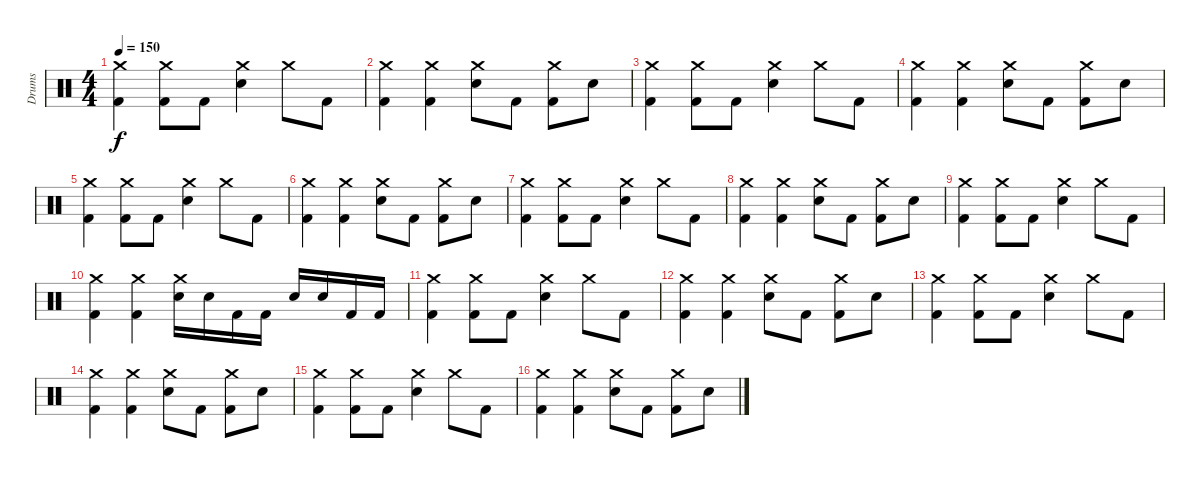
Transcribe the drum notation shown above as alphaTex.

\track ("Drums" "Drums") {instrument percussion}
\staff {score}
\articulation defaults
\ts (4 4)
\tempo 150
\clef neutral
\ks c
("Crash medium (hit)" "Kick (hit) 2").4{dy f} ("Crash medium (hit)" "Kick (hit) 2").8 "Kick (hit) 2".8 ("Crash medium (hit)" "Snare (hit) 2").4 "Crash medium (hit)".8 "Kick (hit) 2".8 |
("Crash medium (hit)" "Kick (hit) 2").4 ("Crash medium (hit)" "Kick (hit) 2").4 ("Crash medium (hit)" "Snare (hit) 2").8 "Kick (hit) 2".8 ("Crash medium (hit)" "Kick (hit) 2").8 "Snare (hit) 2".8 |
("Crash medium (hit)" "Kick (hit) 2").4 ("Crash medium (hit)" "Kick (hit) 2").8 "Kick (hit) 2".8 ("Crash medium (hit)" "Snare (hit) 2").4 "Crash medium (hit)".8 "Kick (hit) 2".8 |
("Crash medium (hit)" "Kick (hit) 2").4 ("Crash medium (hit)" "Kick (hit) 2").4 ("Crash medium (hit)" "Snare (hit) 2").8 "Kick (hit) 2".8 ("Crash medium (hit)" "Kick (hit) 2").8 "Snare (hit) 2".8 |
("Crash medium (hit)" "Kick (hit) 2").4 ("Crash medium (hit)" "Kick (hit) 2").8 "Kick (hit) 2".8 ("Crash medium (hit)" "Snare (hit) 2").4 "Crash medium (hit)".8 "Kick (hit) 2".8 |
("Crash medium (hit)" "Kick (hit) 2").4 ("Crash medium (hit)" "Kick (hit) 2").4 ("Crash medium (hit)" "Snare (hit) 2").8 "Kick (hit) 2".8 ("Crash medium (hit)" "Kick (hit) 2").8 "Snare (hit) 2".8 |
("Crash medium (hit)" "Kick (hit) 2").4 ("Crash medium (hit)" "Kick (hit) 2").8 "Kick (hit) 2".8 ("Crash medium (hit)" "Snare (hit) 2").4 "Crash medium (hit)".8 "Kick (hit) 2".8 |
("Crash medium (hit)" "Kick (hit) 2").4 ("Crash medium (hit)" "Kick (hit) 2").4 ("Crash medium (hit)" "Snare (hit) 2").8 "Kick (hit) 2".8 ("Crash medium (hit)" "Kick (hit) 2").8 "Snare (hit) 2".8 |
("Crash medium (hit)" "Kick (hit) 2").4 ("Crash medium (hit)" "Kick (hit) 2").8 "Kick (hit) 2".8 ("Crash medium (hit)" "Snare (hit) 2").4 "Crash medium (hit)".8 "Kick (hit) 2".8 |
("Crash medium (hit)" "Kick (hit) 2").4 ("Crash medium (hit)" "Kick (hit) 2").4 ("Crash medium (hit)" "Snare (hit) 2").16 "Snare (hit) 2".16 "Kick (hit) 2".16 "Kick (hit) 2".16 "Snare (hit) 2".16 "Snare (hit) 2".16 "Kick (hit) 2".16 "Kick (hit) 2".16 |
("Crash medium (hit)" "Kick (hit) 2").4 ("Crash medium (hit)" "Kick (hit) 2").8 "Kick (hit) 2".8 ("Crash medium (hit)" "Snare (hit) 2").4 "Crash medium (hit)".8 "Kick (hit) 2".8 |
("Crash medium (hit)" "Kick (hit) 2").4 ("Crash medium (hit)" "Kick (hit) 2").4 ("Crash medium (hit)" "Snare (hit) 2").8 "Kick (hit) 2".8 ("Crash medium (hit)" "Kick (hit) 2").8 "Snare (hit) 2".8 |
("Crash medium (hit)" "Kick (hit) 2").4 ("Crash medium (hit)" "Kick (hit) 2").8 "Kick (hit) 2".8 ("Crash medium (hit)" "Snare (hit) 2").4 "Crash medium (hit)".8 "Kick (hit) 2".8 |
("Crash medium (hit)" "Kick (hit) 2").4 ("Crash medium (hit)" "Kick (hit) 2").4 ("Crash medium (hit)" "Snare (hit) 2").8 "Kick (hit) 2".8 ("Crash medium (hit)" "Kick (hit) 2").8 "Snare (hit) 2".8 |
("Crash medium (hit)" "Kick (hit) 2").4 ("Crash medium (hit)" "Kick (hit) 2").8 "Kick (hit) 2".8 ("Crash medium (hit)" "Snare (hit) 2").4 "Crash medium (hit)".8 "Kick (hit) 2".8 |
("Crash medium (hit)" "Kick (hit) 2").4 ("Crash medium (hit)" "Kick (hit) 2").4 ("Crash medium (hit)" "Snare (hit) 2").8 "Kick (hit) 2".8 ("Crash medium (hit)" "Kick (hit) 2").8 "Snare (hit) 2".8
